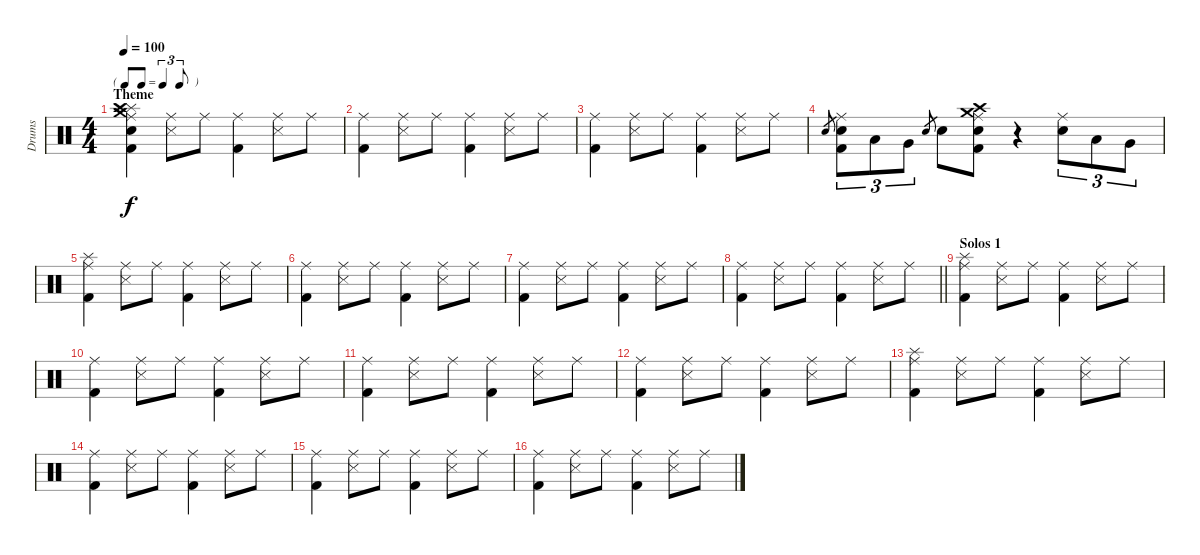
\track ("Drums" "Drums") {instrument percussion}
\staff {score}
\articulation defaults
\ts (4 4)
\tf triplet8th
\section ("" "Theme")
\tempo 100
\clef neutral
\ks c
("Ride (middle)" "Splash (hit)" "Crash medium (hit)" "Crash high (hit)" "Electric Snare (hit)" "Kick (hit) 2").4{dy f} ("Ride (middle)" "Snare (side stick) 3").8 "Ride (middle)".8 ("Ride (middle)" "Kick (hit) 2").4 ("Ride (middle)" "Snare (side stick) 3").8 "Ride (middle)".8 |
("Ride (middle)" "Kick (hit) 2").4 ("Ride (middle)" "Snare (side stick) 3").8 "Ride (middle)".8 ("Ride (middle)" "Kick (hit) 2").4 ("Ride (middle)" "Snare (side stick) 3").8 "Ride (middle)".8 |
("Ride (middle)" "Kick (hit) 2").4 ("Ride (middle)" "Snare (side stick) 3").8 "Ride (middle)".8 ("Ride (middle)" "Kick (hit) 2").4 ("Ride (middle)" "Snare (side stick) 3").8 "Ride (middle)".8 |
"Electric Snare (hit)".8{gr} ("Ride (middle)" "Electric Snare (hit)" "Kick (hit) 2").8{tu (3 2)} "Low Tom (hit)".8{tu (3 2)} "Very Low Tom (hit)".8{tu (3 2)} "Electric Snare (hit)".8{gr} "Electric Snare (hit)".8 ("Ride (middle)" "Crash high (hit)" "Crash medium (hit)" "Electric Snare (hit)" "Kick (hit) 2").8 r.4 ("Ride (middle)" "Electric Snare (hit)").8{tu (3 2)} "Low Tom (hit)".8{tu (3 2)} "Very Low Tom (hit)".8{tu (3 2)} |
("Ride (middle)" "Splash (hit)" "Kick (hit) 2").4 ("Ride (middle)" "Snare (side stick) 3").8 "Ride (middle)".8 ("Ride (middle)" "Kick (hit) 2").4 ("Ride (middle)" "Snare (side stick) 3").8 "Ride (middle)".8 |
("Ride (middle)" "Kick (hit) 2").4 ("Ride (middle)" "Snare (side stick) 3").8 "Ride (middle)".8 ("Ride (middle)" "Kick (hit) 2").4 ("Ride (middle)" "Snare (side stick) 3").8 "Ride (middle)".8 |
("Ride (middle)" "Kick (hit) 2").4 ("Ride (middle)" "Snare (side stick) 3").8 "Ride (middle)".8 ("Ride (middle)" "Kick (hit) 2").4 ("Ride (middle)" "Snare (side stick) 3").8 "Ride (middle)".8 |
\barLineRight lightlight
("Ride (middle)" "Kick (hit) 2").4 ("Ride (middle)" "Snare (side stick) 3").8 "Ride (middle)".8 ("Ride (middle)" "Kick (hit) 2").4 ("Ride (middle)" "Snare (side stick) 3").8 "Ride (middle)".8 |
\section ("" "Solos 1")
("Ride (middle)" "Splash (hit)" "Kick (hit) 2").4 ("Ride (middle)" "Snare (side stick) 3").8 "Ride (middle)".8 ("Ride (middle)" "Kick (hit) 2").4 ("Ride (middle)" "Snare (side stick) 3").8 "Ride (middle)".8 |
("Ride (middle)" "Kick (hit) 2").4 ("Ride (middle)" "Snare (side stick) 3").8 "Ride (middle)".8 ("Ride (middle)" "Kick (hit) 2").4 ("Ride (middle)" "Snare (side stick) 3").8 "Ride (middle)".8 |
("Ride (middle)" "Kick (hit) 2").4 ("Ride (middle)" "Snare (side stick) 3").8 "Ride (middle)".8 ("Ride (middle)" "Kick (hit) 2").4 ("Ride (middle)" "Snare (side stick) 3").8 "Ride (middle)".8 |
("Ride (middle)" "Kick (hit) 2").4 ("Ride (middle)" "Snare (side stick) 3").8 "Ride (middle)".8 ("Ride (middle)" "Kick (hit) 2").4 ("Ride (middle)" "Snare (side stick) 3").8 "Ride (middle)".8 |
("Ride (middle)" "Splash (hit)" "Kick (hit) 2").4 ("Ride (middle)" "Snare (side stick) 3").8 "Ride (middle)".8 ("Ride (middle)" "Kick (hit) 2").4 ("Ride (middle)" "Snare (side stick) 3").8 "Ride (middle)".8 |
("Ride (middle)" "Kick (hit) 2").4 ("Ride (middle)" "Snare (side stick) 3").8 "Ride (middle)".8 ("Ride (middle)" "Kick (hit) 2").4 ("Ride (middle)" "Snare (side stick) 3").8 "Ride (middle)".8 |
("Ride (middle)" "Kick (hit) 2").4 ("Ride (middle)" "Snare (side stick) 3").8 "Ride (middle)".8 ("Ride (middle)" "Kick (hit) 2").4 ("Ride (middle)" "Snare (side stick) 3").8 "Ride (middle)".8 |
("Ride (middle)" "Kick (hit) 2").4 ("Ride (middle)" "Snare (side stick) 3").8 "Ride (middle)".8 ("Ride (middle)" "Kick (hit) 2").4 ("Ride (middle)" "Snare (side stick) 3").8 "Ride (middle)".8
